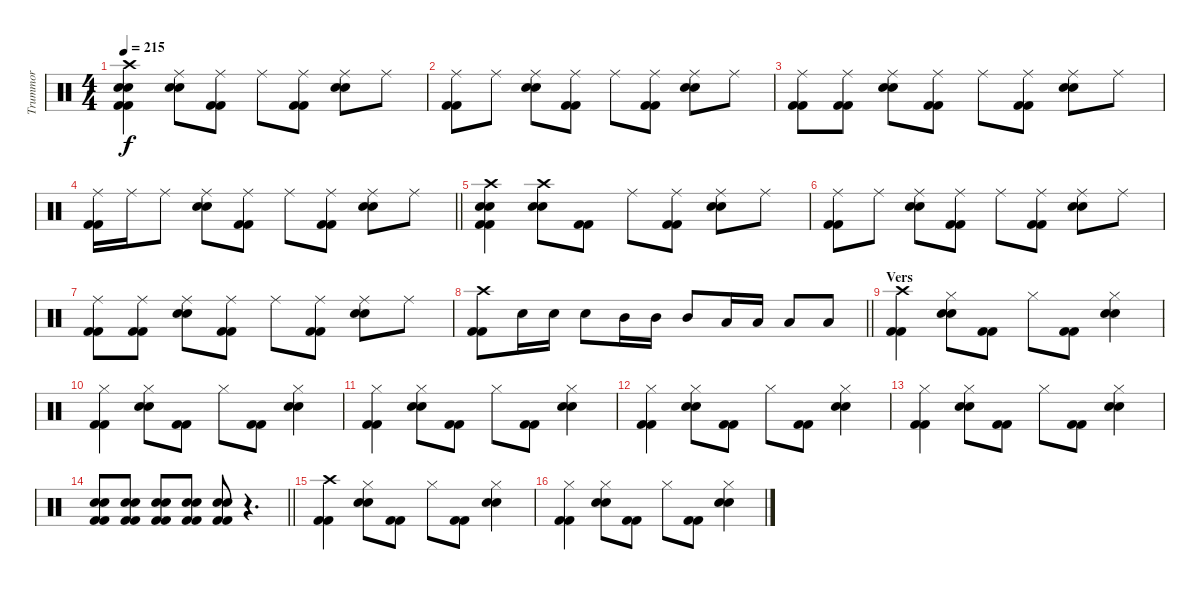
\track ("Trummor" "Trummor") {instrument percussion}
\staff {score}
\articulation defaults
\ts (4 4)
\section ("" "")
\tempo 215
\clef neutral
\ks c
("Crash high (hit)" "Electric Snare (hit)" "Electric Snare (hit)" "Kick (hit) 2" "Kick (hit) 2").4{dy f} ("Ride (middle)" "Electric Snare (hit)" "Electric Snare (hit)").8 ("Ride (middle)" "Kick (hit) 2" "Kick (hit) 2").8 "Ride (middle)".8 ("Ride (middle)" "Kick (hit) 2" "Kick (hit) 2").8 ("Ride (middle)" "Electric Snare (hit)" "Electric Snare (hit)").8 "Ride (middle)".8 |
("Ride (middle)" "Kick (hit) 2" "Kick (hit) 2").8 "Ride (middle)".8 ("Ride (middle)" "Electric Snare (hit)" "Electric Snare (hit)").8 ("Ride (middle)" "Kick (hit) 2" "Kick (hit) 2").8 "Ride (middle)".8 ("Ride (middle)" "Kick (hit) 2" "Kick (hit) 2").8 ("Ride (middle)" "Electric Snare (hit)" "Electric Snare (hit)").8 "Ride (middle)".8 |
("Ride (middle)" "Kick (hit) 2" "Kick (hit) 2").8 ("Ride (middle)" "Kick (hit) 2" "Kick (hit) 2").8 ("Ride (middle)" "Electric Snare (hit)" "Electric Snare (hit)").8 ("Ride (middle)" "Kick (hit) 2" "Kick (hit) 2").8 "Ride (middle)".8 ("Ride (middle)" "Kick (hit) 2" "Kick (hit) 2").8 ("Ride (middle)" "Electric Snare (hit)" "Electric Snare (hit)").8 "Ride (middle)".8 |
\barLineRight lightlight
("Ride (middle)" "Kick (hit) 2" "Kick (hit) 2").16 "Ride (middle)".16 "Ride (middle)".8 ("Ride (middle)" "Electric Snare (hit)" "Electric Snare (hit)").8 ("Ride (middle)" "Kick (hit) 2" "Kick (hit) 2").8 "Ride (middle)".8 ("Ride (middle)" "Kick (hit) 2" "Kick (hit) 2").8 ("Ride (middle)" "Electric Snare (hit)" "Electric Snare (hit)").8 "Ride (middle)".8 |
("Crash high (hit)" "Electric Snare (hit)" "Electric Snare (hit)" "Kick (hit) 2" "Kick (hit) 2").4 ("Crash high (hit)" "Electric Snare (hit)" "Electric Snare (hit)").8 ("Kick (hit) 2" "Kick (hit) 2").8 "Ride (middle)".8 ("Ride (middle)" "Kick (hit) 2" "Kick (hit) 2").8 ("Ride (middle)" "Electric Snare (hit)" "Electric Snare (hit)").8 "Ride (middle)".8 |
("Ride (middle)" "Kick (hit) 2" "Kick (hit) 2").8 "Ride (middle)".8 ("Ride (middle)" "Electric Snare (hit)" "Electric Snare (hit)").8 ("Ride (middle)" "Kick (hit) 2" "Kick (hit) 2").8 "Ride (middle)".8 ("Ride (middle)" "Kick (hit) 2" "Kick (hit) 2").8 ("Ride (middle)" "Electric Snare (hit)" "Electric Snare (hit)").8 "Ride (middle)".8 |
("Ride (middle)" "Kick (hit) 2" "Kick (hit) 2").8 ("Ride (middle)" "Kick (hit) 2" "Kick (hit) 2").8 ("Ride (middle)" "Electric Snare (hit)" "Electric Snare (hit)").8 ("Ride (middle)" "Kick (hit) 2" "Kick (hit) 2").8 "Ride (middle)".8 ("Ride (middle)" "Kick (hit) 2" "Kick (hit) 2").8 ("Ride (middle)" "Electric Snare (hit)" "Electric Snare (hit)").8 "Ride (middle)".8 |
\barLineRight lightlight
("Crash high (hit)" "Kick (hit) 2" "Kick (hit) 2").8 "Electric Snare (hit)".16 "Electric Snare (hit)".16 "Electric Snare (hit)".8 "Mid Tom (hit)".16 "Mid Tom (hit)".16 "Mid Tom (hit)".8 "Low Tom (hit)".16 "Low Tom (hit)".16 "Low Tom (hit)".8 "Low Tom (hit)".8 |
\section ("" "Vers")
("Crash high (hit)" "Kick (hit) 2" "Kick (hit) 2").4 ("Hi-Hat (closed)" "Electric Snare (hit)" "Electric Snare (hit)").8 ("Kick (hit) 2" "Kick (hit) 2").8 "Hi-Hat (closed)".8 ("Kick (hit) 2" "Kick (hit) 2").8 ("Hi-Hat (closed)" "Electric Snare (hit)" "Electric Snare (hit)").4 |
("Hi-Hat (closed)" "Kick (hit) 2" "Kick (hit) 2").4 ("Hi-Hat (closed)" "Electric Snare (hit)" "Electric Snare (hit)").8 ("Kick (hit) 2" "Kick (hit) 2").8 "Hi-Hat (closed)".8 ("Kick (hit) 2" "Kick (hit) 2").8 ("Hi-Hat (closed)" "Electric Snare (hit)" "Electric Snare (hit)").4 |
("Hi-Hat (closed)" "Kick (hit) 2" "Kick (hit) 2").4 ("Hi-Hat (closed)" "Electric Snare (hit)" "Electric Snare (hit)").8 ("Kick (hit) 2" "Kick (hit) 2").8 "Hi-Hat (closed)".8 ("Kick (hit) 2" "Kick (hit) 2").8 ("Hi-Hat (closed)" "Electric Snare (hit)" "Electric Snare (hit)").4 |
("Hi-Hat (closed)" "Kick (hit) 2" "Kick (hit) 2").4 ("Hi-Hat (closed)" "Electric Snare (hit)" "Electric Snare (hit)").8 ("Kick (hit) 2" "Kick (hit) 2").8 "Hi-Hat (closed)".8 ("Kick (hit) 2" "Kick (hit) 2").8 ("Hi-Hat (closed)" "Electric Snare (hit)" "Electric Snare (hit)").4 |
("Hi-Hat (closed)" "Kick (hit) 2" "Kick (hit) 2").4 ("Hi-Hat (closed)" "Electric Snare (hit)" "Electric Snare (hit)").8 ("Kick (hit) 2" "Kick (hit) 2").8 "Hi-Hat (closed)".8 ("Kick (hit) 2" "Kick (hit) 2").8 ("Hi-Hat (closed)" "Electric Snare (hit)" "Electric Snare (hit)").4 |
\barLineRight lightlight
("Electric Snare (hit)" "Electric Snare (hit)" "Kick (hit) 2" "Kick (hit) 2").8 ("Electric Snare (hit)" "Electric Snare (hit)" "Kick (hit) 2" "Kick (hit) 2").8 ("Electric Snare (hit)" "Electric Snare (hit)" "Kick (hit) 2" "Kick (hit) 2").8 ("Electric Snare (hit)" "Electric Snare (hit)" "Kick (hit) 2" "Kick (hit) 2").8 ("Electric Snare (hit)" "Electric Snare (hit)" "Kick (hit) 2" "Kick (hit) 2").8 r.4{d} |
("Crash high (hit)" "Kick (hit) 2" "Kick (hit) 2").4 ("Hi-Hat (closed)" "Electric Snare (hit)" "Electric Snare (hit)").8 ("Kick (hit) 2" "Kick (hit) 2").8 "Hi-Hat (closed)".8 ("Kick (hit) 2" "Kick (hit) 2").8 ("Hi-Hat (closed)" "Electric Snare (hit)" "Electric Snare (hit)").4 |
("Hi-Hat (closed)" "Kick (hit) 2" "Kick (hit) 2").4 ("Hi-Hat (closed)" "Electric Snare (hit)" "Electric Snare (hit)").8 ("Kick (hit) 2" "Kick (hit) 2").8 "Hi-Hat (closed)".8 ("Kick (hit) 2" "Kick (hit) 2").8 ("Hi-Hat (closed)" "Electric Snare (hit)" "Electric Snare (hit)").4
